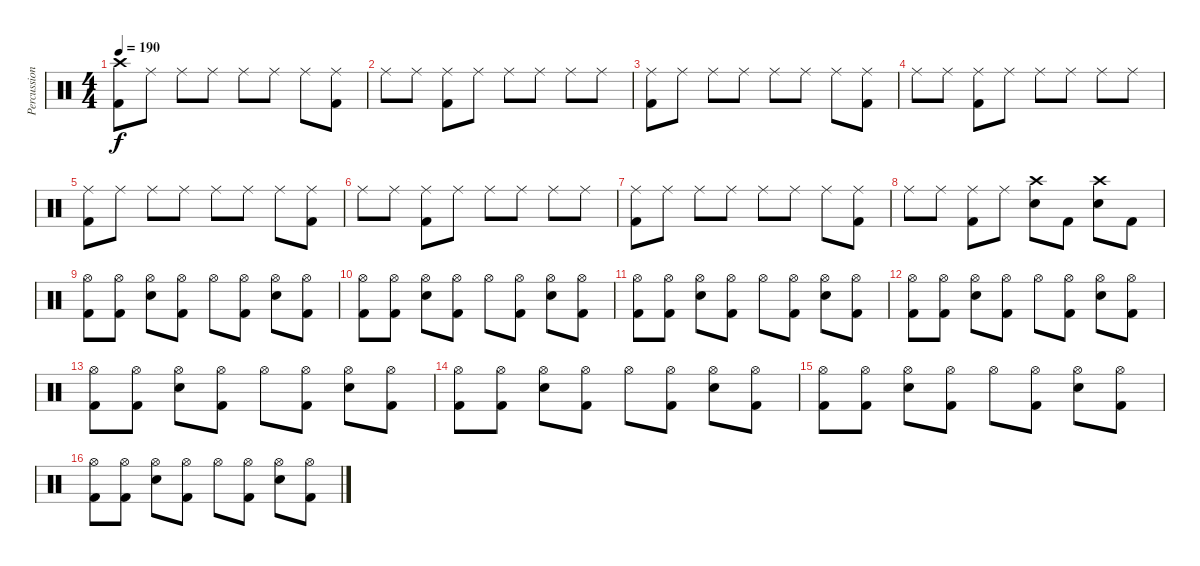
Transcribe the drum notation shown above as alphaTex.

\track ("Percussion" "Percussion") {instrument percussion}
\staff {score}
\articulation defaults
\ts (4 4)
\tempo 190
\clef neutral
\ks c
("Crash high (hit)" "Kick (hit) 2").8{dy f} "Ride (middle)".8 "Ride (middle)".8 "Ride (middle)".8 "Ride (middle)".8 "Ride (middle)".8 "Ride (middle)".8 ("Ride (middle)" "Kick (hit) 2").8 |
"Ride (middle)".8 "Ride (middle)".8 ("Ride (middle)" "Kick (hit) 2").8 "Ride (middle)".8 "Ride (middle)".8 "Ride (middle)".8 "Ride (middle)".8 "Ride (middle)".8 |
("Ride (middle)" "Kick (hit) 2").8 "Ride (middle)".8 "Ride (middle)".8 "Ride (middle)".8 "Ride (middle)".8 "Ride (middle)".8 "Ride (middle)".8 ("Ride (middle)" "Kick (hit) 2").8 |
"Ride (middle)".8 "Ride (middle)".8 ("Ride (middle)" "Kick (hit) 2").8 "Ride (middle)".8 "Ride (middle)".8 "Ride (middle)".8 "Ride (middle)".8 "Ride (middle)".8 |
("Ride (middle)" "Kick (hit) 2").8 "Ride (middle)".8 "Ride (middle)".8 "Ride (middle)".8 "Ride (middle)".8 "Ride (middle)".8 "Ride (middle)".8 ("Ride (middle)" "Kick (hit) 2").8 |
"Ride (middle)".8 "Ride (middle)".8 ("Ride (middle)" "Kick (hit) 2").8 "Ride (middle)".8 "Ride (middle)".8 "Ride (middle)".8 "Ride (middle)".8 "Ride (middle)".8 |
("Ride (middle)" "Kick (hit) 2").8 "Ride (middle)".8 "Ride (middle)".8 "Ride (middle)".8 "Ride (middle)".8 "Ride (middle)".8 "Ride (middle)".8 ("Ride (middle)" "Kick (hit) 2").8 |
"Ride (middle)".8 "Ride (middle)".8 ("Ride (middle)" "Kick (hit) 2").8 "Ride (middle)".8 ("Crash high (hit)" "Snare (hit) 2").8 "Kick (hit) 2".8 ("Crash high (hit)" "Snare (hit) 2").8 "Kick (hit) 2".8 |
("Hi-Hat (open)" "Kick (hit) 2").8 ("Hi-Hat (open)" "Kick (hit) 2").8 ("Hi-Hat (open)" "Snare (hit) 2").8 ("Hi-Hat (open)" "Kick (hit) 2").8 "Hi-Hat (open)".8 ("Hi-Hat (open)" "Kick (hit) 2").8 ("Hi-Hat (open)" "Snare (hit) 2").8 ("Hi-Hat (open)" "Kick (hit) 2").8 |
("Hi-Hat (open)" "Kick (hit) 2").8 ("Hi-Hat (open)" "Kick (hit) 2").8 ("Hi-Hat (open)" "Snare (hit) 2").8 ("Hi-Hat (open)" "Kick (hit) 2").8 "Hi-Hat (open)".8 ("Hi-Hat (open)" "Kick (hit) 2").8 ("Hi-Hat (open)" "Snare (hit) 2").8 ("Hi-Hat (open)" "Kick (hit) 2").8 |
("Hi-Hat (open)" "Kick (hit) 2").8 ("Hi-Hat (open)" "Kick (hit) 2").8 ("Hi-Hat (open)" "Snare (hit) 2").8 ("Hi-Hat (open)" "Kick (hit) 2").8 "Hi-Hat (open)".8 ("Hi-Hat (open)" "Kick (hit) 2").8 ("Hi-Hat (open)" "Snare (hit) 2").8 ("Hi-Hat (open)" "Kick (hit) 2").8 |
("Hi-Hat (open)" "Kick (hit) 2").8 ("Hi-Hat (open)" "Kick (hit) 2").8 ("Hi-Hat (open)" "Snare (hit) 2").8 ("Hi-Hat (open)" "Kick (hit) 2").8 "Hi-Hat (open)".8 ("Hi-Hat (open)" "Kick (hit) 2").8 ("Hi-Hat (open)" "Snare (hit) 2").8 ("Hi-Hat (open)" "Kick (hit) 2").8 |
("Hi-Hat (open)" "Kick (hit) 2").8 ("Hi-Hat (open)" "Kick (hit) 2").8 ("Hi-Hat (open)" "Snare (hit) 2").8 ("Hi-Hat (open)" "Kick (hit) 2").8 "Hi-Hat (open)".8 ("Hi-Hat (open)" "Kick (hit) 2").8 ("Hi-Hat (open)" "Snare (hit) 2").8 ("Hi-Hat (open)" "Kick (hit) 2").8 |
("Hi-Hat (open)" "Kick (hit) 2").8 ("Hi-Hat (open)" "Kick (hit) 2").8 ("Hi-Hat (open)" "Snare (hit) 2").8 ("Hi-Hat (open)" "Kick (hit) 2").8 "Hi-Hat (open)".8 ("Hi-Hat (open)" "Kick (hit) 2").8 ("Hi-Hat (open)" "Snare (hit) 2").8 ("Hi-Hat (open)" "Kick (hit) 2").8 |
("Hi-Hat (open)" "Kick (hit) 2").8 ("Hi-Hat (open)" "Kick (hit) 2").8 ("Hi-Hat (open)" "Snare (hit) 2").8 ("Hi-Hat (open)" "Kick (hit) 2").8 "Hi-Hat (open)".8 ("Hi-Hat (open)" "Kick (hit) 2").8 ("Hi-Hat (open)" "Snare (hit) 2").8 ("Hi-Hat (open)" "Kick (hit) 2").8 |
("Hi-Hat (open)" "Kick (hit) 2").8 ("Hi-Hat (open)" "Kick (hit) 2").8 ("Hi-Hat (open)" "Snare (hit) 2").8 ("Hi-Hat (open)" "Kick (hit) 2").8 "Hi-Hat (open)".8 ("Hi-Hat (open)" "Kick (hit) 2").8 ("Hi-Hat (open)" "Snare (hit) 2").8 ("Hi-Hat (open)" "Kick (hit) 2").8
